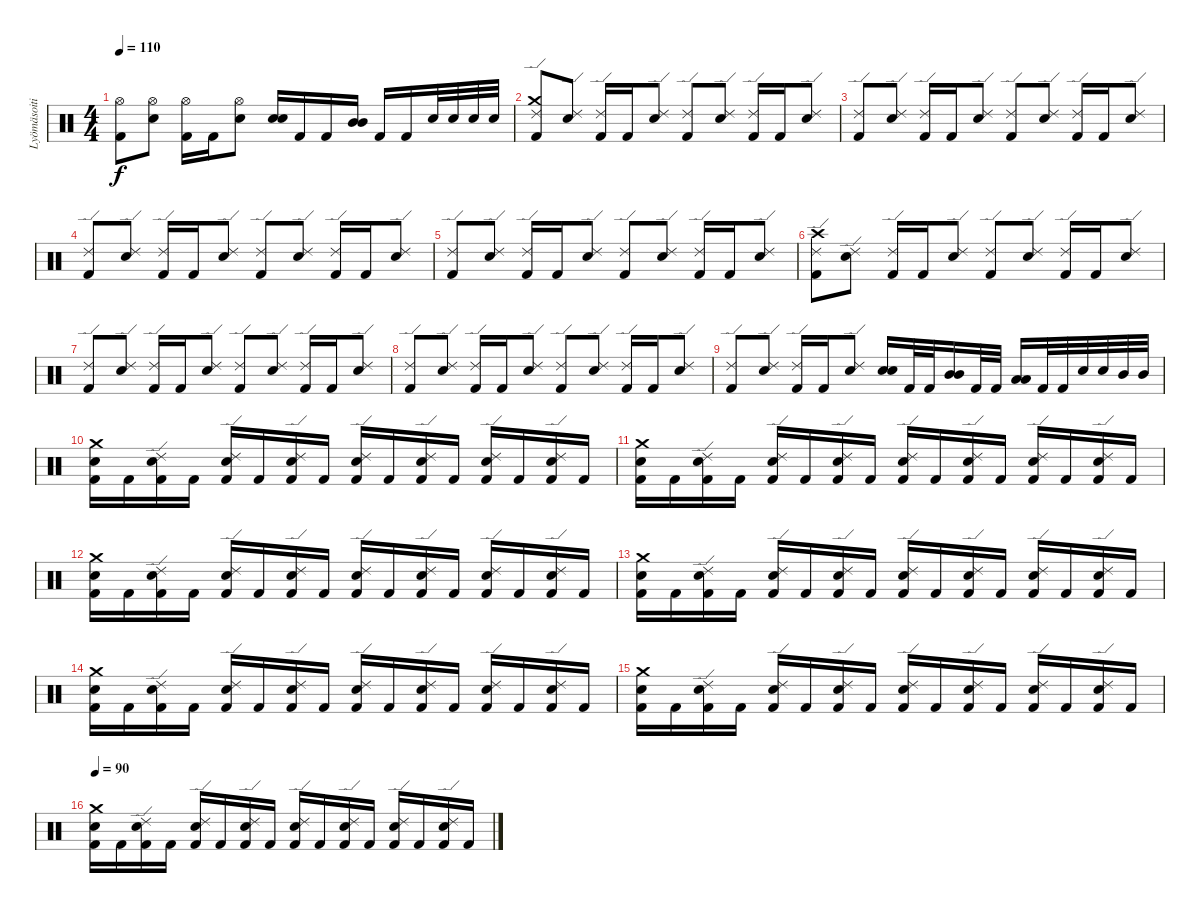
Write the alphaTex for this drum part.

\track ("Lyömäsoitin" "Lyömäsoiti") {instrument percussion}
\staff {score}
\articulation defaults
\ts (4 4)
\tempo 110
\clef neutral
\ks c
("Kick (hit) 2" "Hi-Hat (open)").8{dy f} ("Electric Snare (hit)" "Hi-Hat (open)").8 ("Kick (hit) 2" "Hi-Hat (open)").16 "Kick (hit) 2".16 ("Electric Snare (hit)" "Hi-Hat (open)").8 ("Electric Snare (hit)" "Electric Snare (hit)").16 "Kick (hit) 2".16 "Kick (hit) 2".16 ("Mid Tom (hit)" "Mid Tom (hit)").16 "Kick (hit) 2".16 "Kick (hit) 2".16 "Electric Snare (hit)".32 "Electric Snare (hit)".32 "Electric Snare (hit)".32 "Electric Snare (hit)".32 |
("Crash medium (hit)" "Kick (hit) 2" "Ride (edge) 2").8 ("Electric Snare (hit)" "Ride (edge) 2").8 ("Kick (hit) 2" "Ride (edge) 2").16 "Kick (hit) 2".16 ("Electric Snare (hit)" "Ride (edge) 2").8 ("Kick (hit) 2" "Ride (edge) 2").8 ("Electric Snare (hit)" "Ride (edge) 2").8 ("Kick (hit) 2" "Ride (edge) 2").16 "Kick (hit) 2".16 ("Electric Snare (hit)" "Ride (edge) 2").8 |
("Kick (hit) 2" "Ride (edge) 2").8 ("Electric Snare (hit)" "Ride (edge) 2").8 ("Kick (hit) 2" "Ride (edge) 2").16 "Kick (hit) 2".16 ("Electric Snare (hit)" "Ride (edge) 2").8 ("Kick (hit) 2" "Ride (edge) 2").8 ("Electric Snare (hit)" "Ride (edge) 2").8 ("Kick (hit) 2" "Ride (edge) 2").16 "Kick (hit) 2".16 ("Electric Snare (hit)" "Ride (edge) 2").8 |
("Kick (hit) 2" "Ride (edge) 2").8 ("Electric Snare (hit)" "Ride (edge) 2").8 ("Kick (hit) 2" "Ride (edge) 2").16 "Kick (hit) 2".16 ("Electric Snare (hit)" "Ride (edge) 2").8 ("Kick (hit) 2" "Ride (edge) 2").8 ("Electric Snare (hit)" "Ride (edge) 2").8 ("Kick (hit) 2" "Ride (edge) 2").16 "Kick (hit) 2".16 ("Electric Snare (hit)" "Ride (edge) 2").8 |
("Kick (hit) 2" "Ride (edge) 2").8 ("Electric Snare (hit)" "Ride (edge) 2").8 ("Kick (hit) 2" "Ride (edge) 2").16 "Kick (hit) 2".16 ("Electric Snare (hit)" "Ride (edge) 2").8 ("Kick (hit) 2" "Ride (edge) 2").8 ("Electric Snare (hit)" "Ride (edge) 2").8 ("Kick (hit) 2" "Ride (edge) 2").16 "Kick (hit) 2".16 ("Electric Snare (hit)" "Ride (edge) 2").8 |
("Crash high (hit)" "Kick (hit) 2" "Ride (edge) 2").8 ("Electric Snare (hit)" "Ride (edge) 2").8 ("Kick (hit) 2" "Ride (edge) 2").16 "Kick (hit) 2".16 ("Electric Snare (hit)" "Ride (edge) 2").8 ("Kick (hit) 2" "Ride (edge) 2").8 ("Electric Snare (hit)" "Ride (edge) 2").8 ("Kick (hit) 2" "Ride (edge) 2").16 "Kick (hit) 2".16 ("Electric Snare (hit)" "Ride (edge) 2").8 |
("Kick (hit) 2" "Ride (edge) 2").8 ("Electric Snare (hit)" "Ride (edge) 2").8 ("Kick (hit) 2" "Ride (edge) 2").16 "Kick (hit) 2".16 ("Electric Snare (hit)" "Ride (edge) 2").8 ("Kick (hit) 2" "Ride (edge) 2").8 ("Electric Snare (hit)" "Ride (edge) 2").8 ("Kick (hit) 2" "Ride (edge) 2").16 "Kick (hit) 2".16 ("Electric Snare (hit)" "Ride (edge) 2").8 |
("Kick (hit) 2" "Ride (edge) 2").8 ("Electric Snare (hit)" "Ride (edge) 2").8 ("Kick (hit) 2" "Ride (edge) 2").16 "Kick (hit) 2".16 ("Electric Snare (hit)" "Ride (edge) 2").8 ("Kick (hit) 2" "Ride (edge) 2").8 ("Electric Snare (hit)" "Ride (edge) 2").8 ("Kick (hit) 2" "Ride (edge) 2").16 "Kick (hit) 2".16 ("Electric Snare (hit)" "Ride (edge) 2").8 |
("Kick (hit) 2" "Ride (edge) 2").8 ("Electric Snare (hit)" "Ride (edge) 2").8 ("Kick (hit) 2" "Ride (edge) 2").16 "Kick (hit) 2".16 ("Electric Snare (hit)" "Ride (edge) 2").8 ("Electric Snare (hit)" "Electric Snare (hit)").16 "Kick (hit) 2".32 "Kick (hit) 2".32 ("Mid Tom (hit)" "Mid Tom (hit)").16 "Kick (hit) 2".32 "Kick (hit) 2".32 ("Low Tom (hit)" "Low Tom (hit)").16 "Kick (hit) 2".32 "Kick (hit) 2".32 "Electric Snare (hit)".32 "Electric Snare (hit)".32 "Mid Tom (hit)".32 "Mid Tom (hit)".32 |
("Electric Snare (hit)" "Crash medium (hit)" "Kick (hit) 2").16 "Kick (hit) 2".16 ("Electric Snare (hit)" "Ride (edge) 2" "Kick (hit) 2").16 "Kick (hit) 2".16 ("Electric Snare (hit)" "Ride (edge) 2" "Kick (hit) 2").16 "Kick (hit) 2".16 ("Electric Snare (hit)" "Ride (edge) 2" "Kick (hit) 2").16 "Kick (hit) 2".16 ("Electric Snare (hit)" "Ride (edge) 2" "Kick (hit) 2").16 "Kick (hit) 2".16 ("Electric Snare (hit)" "Ride (edge) 2" "Kick (hit) 2").16 "Kick (hit) 2".16 ("Electric Snare (hit)" "Ride (edge) 2" "Kick (hit) 2").16 "Kick (hit) 2".16 ("Electric Snare (hit)" "Ride (edge) 2" "Kick (hit) 2").16 "Kick (hit) 2".16 |
("Electric Snare (hit)" "Crash medium (hit)" "Kick (hit) 2").16 "Kick (hit) 2".16 ("Electric Snare (hit)" "Ride (edge) 2" "Kick (hit) 2").16 "Kick (hit) 2".16 ("Electric Snare (hit)" "Ride (edge) 2" "Kick (hit) 2").16 "Kick (hit) 2".16 ("Electric Snare (hit)" "Ride (edge) 2" "Kick (hit) 2").16 "Kick (hit) 2".16 ("Electric Snare (hit)" "Ride (edge) 2" "Kick (hit) 2").16 "Kick (hit) 2".16 ("Electric Snare (hit)" "Ride (edge) 2" "Kick (hit) 2").16 "Kick (hit) 2".16 ("Electric Snare (hit)" "Ride (edge) 2" "Kick (hit) 2").16 "Kick (hit) 2".16 ("Electric Snare (hit)" "Ride (edge) 2" "Kick (hit) 2").16 "Kick (hit) 2".16 |
("Electric Snare (hit)" "Crash medium (hit)" "Kick (hit) 2").16 "Kick (hit) 2".16 ("Electric Snare (hit)" "Ride (edge) 2" "Kick (hit) 2").16 "Kick (hit) 2".16 ("Electric Snare (hit)" "Ride (edge) 2" "Kick (hit) 2").16 "Kick (hit) 2".16 ("Electric Snare (hit)" "Ride (edge) 2" "Kick (hit) 2").16 "Kick (hit) 2".16 ("Electric Snare (hit)" "Ride (edge) 2" "Kick (hit) 2").16 "Kick (hit) 2".16 ("Electric Snare (hit)" "Ride (edge) 2" "Kick (hit) 2").16 "Kick (hit) 2".16 ("Electric Snare (hit)" "Ride (edge) 2" "Kick (hit) 2").16 "Kick (hit) 2".16 ("Electric Snare (hit)" "Ride (edge) 2" "Kick (hit) 2").16 "Kick (hit) 2".16 |
("Electric Snare (hit)" "Crash medium (hit)" "Kick (hit) 2").16 "Kick (hit) 2".16 ("Electric Snare (hit)" "Ride (edge) 2" "Kick (hit) 2").16 "Kick (hit) 2".16 ("Electric Snare (hit)" "Ride (edge) 2" "Kick (hit) 2").16 "Kick (hit) 2".16 ("Electric Snare (hit)" "Ride (edge) 2" "Kick (hit) 2").16 "Kick (hit) 2".16 ("Electric Snare (hit)" "Ride (edge) 2" "Kick (hit) 2").16 "Kick (hit) 2".16 ("Electric Snare (hit)" "Ride (edge) 2" "Kick (hit) 2").16 "Kick (hit) 2".16 ("Electric Snare (hit)" "Ride (edge) 2" "Kick (hit) 2").16 "Kick (hit) 2".16 ("Electric Snare (hit)" "Ride (edge) 2" "Kick (hit) 2").16 "Kick (hit) 2".16 |
("Electric Snare (hit)" "Crash medium (hit)" "Kick (hit) 2").16 "Kick (hit) 2".16 ("Electric Snare (hit)" "Ride (edge) 2" "Kick (hit) 2").16 "Kick (hit) 2".16 ("Electric Snare (hit)" "Ride (edge) 2" "Kick (hit) 2").16 "Kick (hit) 2".16 ("Electric Snare (hit)" "Ride (edge) 2" "Kick (hit) 2").16 "Kick (hit) 2".16 ("Electric Snare (hit)" "Ride (edge) 2" "Kick (hit) 2").16 "Kick (hit) 2".16 ("Electric Snare (hit)" "Ride (edge) 2" "Kick (hit) 2").16 "Kick (hit) 2".16 ("Electric Snare (hit)" "Ride (edge) 2" "Kick (hit) 2").16 "Kick (hit) 2".16 ("Electric Snare (hit)" "Ride (edge) 2" "Kick (hit) 2").16 "Kick (hit) 2".16 |
("Electric Snare (hit)" "Crash medium (hit)" "Kick (hit) 2").16 "Kick (hit) 2".16 ("Electric Snare (hit)" "Ride (edge) 2" "Kick (hit) 2").16 "Kick (hit) 2".16 ("Electric Snare (hit)" "Ride (edge) 2" "Kick (hit) 2").16 "Kick (hit) 2".16 ("Electric Snare (hit)" "Ride (edge) 2" "Kick (hit) 2").16 "Kick (hit) 2".16 ("Electric Snare (hit)" "Ride (edge) 2" "Kick (hit) 2").16 "Kick (hit) 2".16 ("Electric Snare (hit)" "Ride (edge) 2" "Kick (hit) 2").16 "Kick (hit) 2".16 ("Electric Snare (hit)" "Ride (edge) 2" "Kick (hit) 2").16 "Kick (hit) 2".16 ("Electric Snare (hit)" "Ride (edge) 2" "Kick (hit) 2").16 "Kick (hit) 2".16 |
\tempo 90
("Electric Snare (hit)" "Crash medium (hit)" "Kick (hit) 2").16 "Kick (hit) 2".16 ("Electric Snare (hit)" "Ride (edge) 2" "Kick (hit) 2").16 "Kick (hit) 2".16 ("Electric Snare (hit)" "Ride (edge) 2" "Kick (hit) 2").16 "Kick (hit) 2".16 ("Electric Snare (hit)" "Ride (edge) 2" "Kick (hit) 2").16 "Kick (hit) 2".16 ("Electric Snare (hit)" "Ride (edge) 2" "Kick (hit) 2").16 "Kick (hit) 2".16 ("Electric Snare (hit)" "Ride (edge) 2" "Kick (hit) 2").16 "Kick (hit) 2".16 ("Electric Snare (hit)" "Ride (edge) 2" "Kick (hit) 2").16 "Kick (hit) 2".16 ("Electric Snare (hit)" "Ride (edge) 2" "Kick (hit) 2").16 "Kick (hit) 2".16
